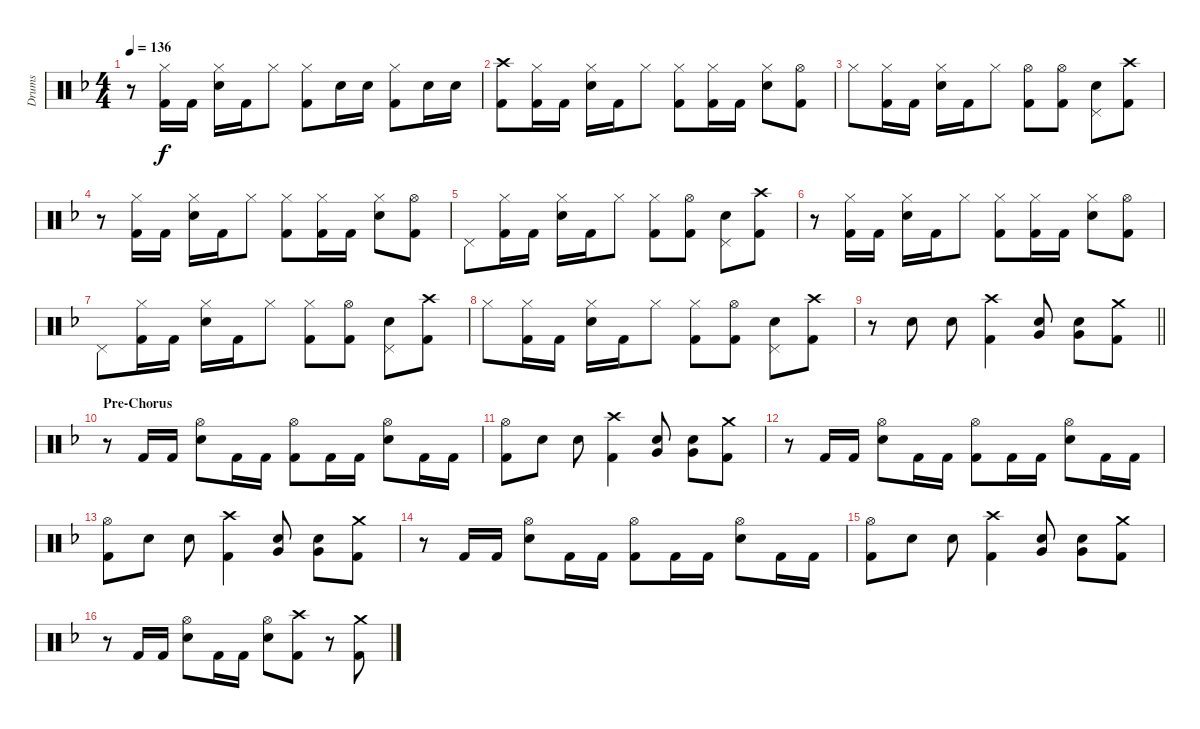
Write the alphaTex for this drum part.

\track ("Drums" "Drums") {instrument percussion}
\staff {score}
\articulation defaults
\ts (4 4)
\tempo 136
\clef neutral
\ks dminor
r.8{dy f} ("Hi-Hat (closed)" "Kick (hit) 2").16 "Kick (hit) 2".16 ("Hi-Hat (closed)" "Snare (hit) 2").16 "Kick (hit) 2".16 "Hi-Hat (closed)".8 ("Hi-Hat (closed)" "Kick (hit) 2").8 "Snare (hit) 2".16 "Snare (hit) 2".16 ("Hi-Hat (closed)" "Kick (hit) 2").8 "Snare (hit) 2".16 "Snare (hit) 2".16 |
("Crash high (hit)" "Kick (hit) 2").8 ("Hi-Hat (closed)" "Kick (hit) 2").16 "Kick (hit) 2".16 ("Hi-Hat (closed)" "Snare (hit) 2").16 "Kick (hit) 2".16 "Hi-Hat (closed)".8 ("Hi-Hat (closed)" "Kick (hit) 2").8 ("Hi-Hat (closed)" "Kick (hit) 2").16 "Kick (hit) 2".16 ("Hi-Hat (closed)" "Snare (hit) 2").8 ("Hi-Hat (open)" "Kick (hit) 2").8 |
"Hi-Hat (closed)".8 ("Hi-Hat (closed)" "Kick (hit) 2").16 "Kick (hit) 2".16 ("Hi-Hat (closed)" "Snare (hit) 2").16 "Kick (hit) 2".16 "Hi-Hat (closed)".8 ("Hi-Hat (open)" "Kick (hit) 2").8 ("Hi-Hat (open)" "Kick (hit) 2").8 ("Pedal Hi-Hat (hit)" "Snare (hit) 2").8 ("Crash high (hit)" "Kick (hit) 2").8 |
r.8 ("Hi-Hat (closed)" "Kick (hit) 2").16 "Kick (hit) 2".16 ("Hi-Hat (closed)" "Snare (hit) 2").16 "Kick (hit) 2".16 "Hi-Hat (closed)".8 ("Hi-Hat (closed)" "Kick (hit) 2").8 ("Hi-Hat (closed)" "Kick (hit) 2").16 "Kick (hit) 2".16 ("Hi-Hat (closed)" "Snare (hit) 2").8 ("Hi-Hat (open)" "Kick (hit) 2").8 |
"Pedal Hi-Hat (hit)".8 ("Hi-Hat (closed)" "Kick (hit) 2").16 "Kick (hit) 2".16 ("Hi-Hat (closed)" "Snare (hit) 2").16 "Kick (hit) 2".16 "Hi-Hat (closed)".8 ("Hi-Hat (closed)" "Kick (hit) 2").8 ("Hi-Hat (open)" "Kick (hit) 2").8 ("Pedal Hi-Hat (hit)" "Snare (hit) 2").8 ("Crash high (hit)" "Kick (hit) 2").8 |
r.8 ("Hi-Hat (closed)" "Kick (hit) 2").16 "Kick (hit) 2".16 ("Hi-Hat (closed)" "Snare (hit) 2").16 "Kick (hit) 2".16 "Hi-Hat (closed)".8 ("Hi-Hat (closed)" "Kick (hit) 2").8 ("Hi-Hat (closed)" "Kick (hit) 2").16 "Kick (hit) 2".16 ("Hi-Hat (closed)" "Snare (hit) 2").8 ("Hi-Hat (open)" "Kick (hit) 2").8 |
"Pedal Hi-Hat (hit)".8 ("Hi-Hat (closed)" "Kick (hit) 2").16 "Kick (hit) 2".16 ("Hi-Hat (closed)" "Snare (hit) 2").16 "Kick (hit) 2".16 "Hi-Hat (closed)".8 ("Hi-Hat (closed)" "Kick (hit) 2").8 ("Hi-Hat (open)" "Kick (hit) 2").8 ("Pedal Hi-Hat (hit)" "Snare (hit) 2").8 ("Crash high (hit)" "Kick (hit) 2").8 |
"Hi-Hat (closed)".8 ("Hi-Hat (closed)" "Kick (hit) 2").16 "Kick (hit) 2".16 ("Hi-Hat (closed)" "Snare (hit) 2").16 "Kick (hit) 2".16 "Hi-Hat (closed)".8 ("Hi-Hat (closed)" "Kick (hit) 2").8 ("Hi-Hat (open)" "Kick (hit) 2").8 ("Pedal Hi-Hat (hit)" "Snare (hit) 2").8 ("Crash high (hit)" "Kick (hit) 2").8 |
\barLineRight lightlight
r.8 "Snare (hit) 2".8 "Snare (hit) 2".8 ("Crash high (hit)" "Kick (hit) 2").4 ("Very Low Tom (hit)" "Snare (hit) 2").8 ("Very Low Tom (hit)" "Snare (hit) 2").8 ("Crash medium (hit)" "Kick (hit) 2").8 |
\section ("" "Pre-Chorus")
r.8 "Kick (hit) 2".16 "Kick (hit) 2".16 ("Hi-Hat (open)" "Snare (hit) 2").8 "Kick (hit) 2".16 "Kick (hit) 2".16 ("Hi-Hat (open)" "Kick (hit) 2").8 "Kick (hit) 2".16 "Kick (hit) 2".16 ("Hi-Hat (open)" "Snare (hit) 2").8 "Kick (hit) 2".16 "Kick (hit) 2".16 |
("Hi-Hat (open)" "Kick (hit) 2").8 "Snare (hit) 2".8 "Snare (hit) 2".8 ("Crash high (hit)" "Kick (hit) 2").4 ("Very Low Tom (hit)" "Snare (hit) 2").8 ("Very Low Tom (hit)" "Snare (hit) 2").8 ("Crash medium (hit)" "Kick (hit) 2").8 |
r.8 "Kick (hit) 2".16 "Kick (hit) 2".16 ("Hi-Hat (open)" "Snare (hit) 2").8 "Kick (hit) 2".16 "Kick (hit) 2".16 ("Hi-Hat (open)" "Kick (hit) 2").8 "Kick (hit) 2".16 "Kick (hit) 2".16 ("Hi-Hat (open)" "Snare (hit) 2").8 "Kick (hit) 2".16 "Kick (hit) 2".16 |
("Hi-Hat (open)" "Kick (hit) 2").8 "Snare (hit) 2".8 "Snare (hit) 2".8 ("Crash high (hit)" "Kick (hit) 2").4 ("Very Low Tom (hit)" "Snare (hit) 2").8 ("Very Low Tom (hit)" "Snare (hit) 2").8 ("Crash medium (hit)" "Kick (hit) 2").8 |
r.8 "Kick (hit) 2".16 "Kick (hit) 2".16 ("Hi-Hat (open)" "Snare (hit) 2").8 "Kick (hit) 2".16 "Kick (hit) 2".16 ("Hi-Hat (open)" "Kick (hit) 2").8 "Kick (hit) 2".16 "Kick (hit) 2".16 ("Hi-Hat (open)" "Snare (hit) 2").8 "Kick (hit) 2".16 "Kick (hit) 2".16 |
("Hi-Hat (open)" "Kick (hit) 2").8 "Snare (hit) 2".8 "Snare (hit) 2".8 ("Crash high (hit)" "Kick (hit) 2").4 ("Very Low Tom (hit)" "Snare (hit) 2").8 ("Very Low Tom (hit)" "Snare (hit) 2").8 ("Crash medium (hit)" "Kick (hit) 2").8 |
r.8 "Kick (hit) 2".16 "Kick (hit) 2".16 ("Hi-Hat (open)" "Snare (hit) 2").8 "Kick (hit) 2".16 "Kick (hit) 2".16 ("Hi-Hat (open)" "Snare (hit) 2").8 ("Crash high (hit)" "Kick (hit) 2").8 r.8 ("Crash medium (hit)" "Kick (hit) 2").8
